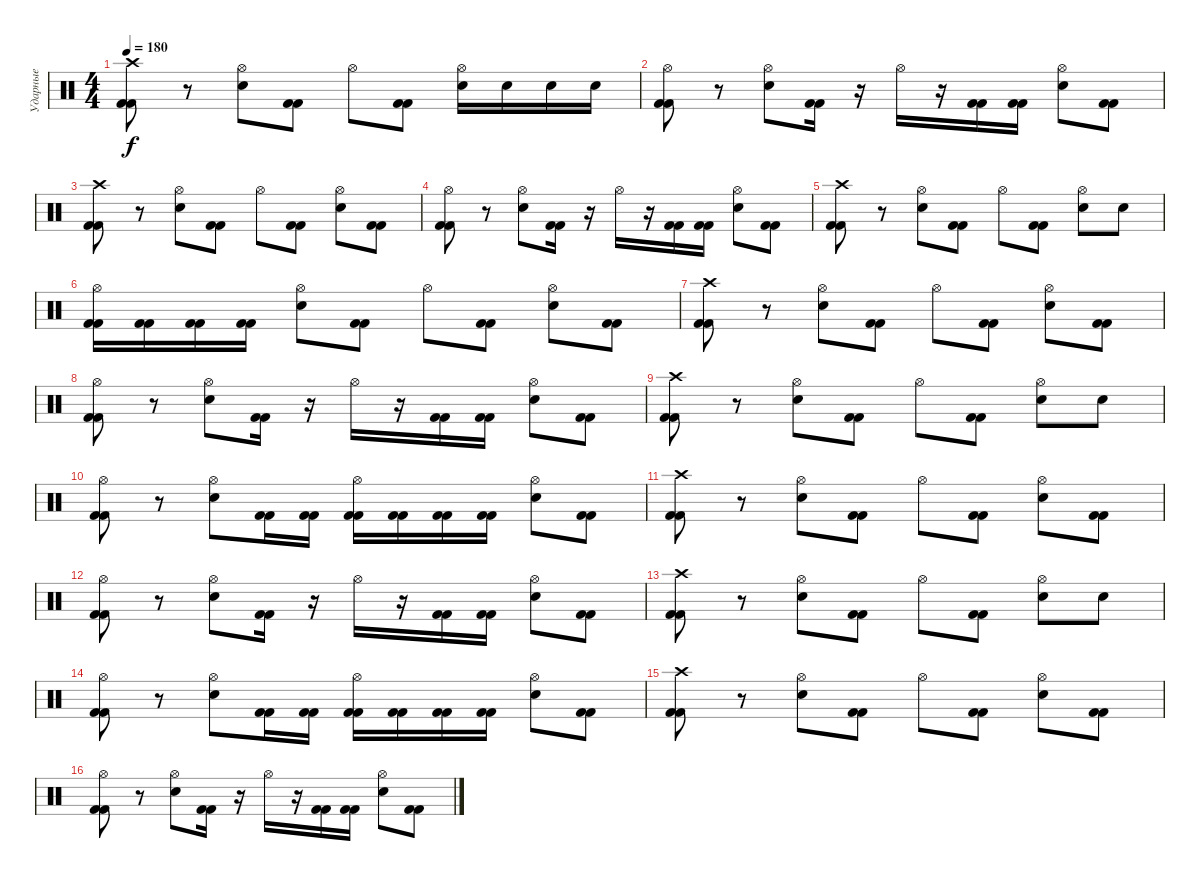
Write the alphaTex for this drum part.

\track ("Ударные" "Ударные") {instrument percussion}
\staff {score}
\articulation defaults
\ts (4 4)
\tempo 180
\clef neutral
\ks c
("Crash high (hit)" "Kick (hit) 2" "Kick (hit) 2").8{dy f} r.8 ("Hi-Hat (open)" "Electric Snare (hit)").8 ("Kick (hit) 2" "Kick (hit) 2").8 "Hi-Hat (open)".8 ("Kick (hit) 2" "Kick (hit) 2").8 ("Hi-Hat (open)" "Electric Snare (hit)").16 "Electric Snare (hit)".16 "Electric Snare (hit)".16 "Electric Snare (hit)".16 |
("Hi-Hat (open)" "Kick (hit) 2" "Kick (hit) 2").8 r.8 ("Hi-Hat (open)" "Electric Snare (hit)").8 ("Kick (hit) 2" "Kick (hit) 2").16 r.16 "Hi-Hat (open)".16 r.16 ("Kick (hit) 2" "Kick (hit) 2").16 ("Kick (hit) 2" "Kick (hit) 2").16 ("Hi-Hat (open)" "Electric Snare (hit)").8 ("Kick (hit) 2" "Kick (hit) 2").8 |
("Crash high (hit)" "Kick (hit) 2" "Kick (hit) 2").8 r.8 ("Hi-Hat (open)" "Electric Snare (hit)").8 ("Kick (hit) 2" "Kick (hit) 2").8 "Hi-Hat (open)".8 ("Kick (hit) 2" "Kick (hit) 2").8 ("Hi-Hat (open)" "Electric Snare (hit)").8 ("Kick (hit) 2" "Kick (hit) 2").8 |
("Hi-Hat (open)" "Kick (hit) 2" "Kick (hit) 2").8 r.8 ("Hi-Hat (open)" "Electric Snare (hit)").8 ("Kick (hit) 2" "Kick (hit) 2").16 r.16 "Hi-Hat (open)".16 r.16 ("Kick (hit) 2" "Kick (hit) 2").16 ("Kick (hit) 2" "Kick (hit) 2").16 ("Hi-Hat (open)" "Electric Snare (hit)").8 ("Kick (hit) 2" "Kick (hit) 2").8 |
("Crash high (hit)" "Kick (hit) 2" "Kick (hit) 2").8 r.8 ("Hi-Hat (open)" "Electric Snare (hit)").8 ("Kick (hit) 2" "Kick (hit) 2").8 "Hi-Hat (open)".8 ("Kick (hit) 2" "Kick (hit) 2").8 ("Hi-Hat (open)" "Electric Snare (hit)").8 "Electric Snare (hit)".8 |
("Hi-Hat (open)" "Kick (hit) 2" "Kick (hit) 2").16 ("Kick (hit) 2" "Kick (hit) 2").16 ("Kick (hit) 2" "Kick (hit) 2").16 ("Kick (hit) 2" "Kick (hit) 2").16 ("Hi-Hat (open)" "Electric Snare (hit)").8 ("Kick (hit) 2" "Kick (hit) 2").8 "Hi-Hat (open)".8 ("Kick (hit) 2" "Kick (hit) 2").8 ("Hi-Hat (open)" "Electric Snare (hit)").8 ("Kick (hit) 2" "Kick (hit) 2").8 |
("Crash high (hit)" "Kick (hit) 2" "Kick (hit) 2").8 r.8 ("Hi-Hat (open)" "Electric Snare (hit)").8 ("Kick (hit) 2" "Kick (hit) 2").8 "Hi-Hat (open)".8 ("Kick (hit) 2" "Kick (hit) 2").8 ("Hi-Hat (open)" "Electric Snare (hit)").8 ("Kick (hit) 2" "Kick (hit) 2").8 |
("Hi-Hat (open)" "Kick (hit) 2" "Kick (hit) 2").8 r.8 ("Hi-Hat (open)" "Electric Snare (hit)").8 ("Kick (hit) 2" "Kick (hit) 2").16 r.16 "Hi-Hat (open)".16 r.16 ("Kick (hit) 2" "Kick (hit) 2").16 ("Kick (hit) 2" "Kick (hit) 2").16 ("Hi-Hat (open)" "Electric Snare (hit)").8 ("Kick (hit) 2" "Kick (hit) 2").8 |
("Crash high (hit)" "Kick (hit) 2" "Kick (hit) 2").8 r.8 ("Hi-Hat (open)" "Electric Snare (hit)").8 ("Kick (hit) 2" "Kick (hit) 2").8 "Hi-Hat (open)".8 ("Kick (hit) 2" "Kick (hit) 2").8 ("Hi-Hat (open)" "Electric Snare (hit)").8 "Electric Snare (hit)".8 |
("Hi-Hat (open)" "Kick (hit) 2" "Kick (hit) 2").8 r.8 ("Hi-Hat (open)" "Electric Snare (hit)").8 ("Kick (hit) 2" "Kick (hit) 2").16 ("Kick (hit) 2" "Kick (hit) 2").16 ("Hi-Hat (open)" "Kick (hit) 2" "Kick (hit) 2").16 ("Kick (hit) 2" "Kick (hit) 2").16 ("Kick (hit) 2" "Kick (hit) 2").16 ("Kick (hit) 2" "Kick (hit) 2").16 ("Hi-Hat (open)" "Electric Snare (hit)").8 ("Kick (hit) 2" "Kick (hit) 2").8 |
("Crash high (hit)" "Kick (hit) 2" "Kick (hit) 2").8 r.8 ("Hi-Hat (open)" "Electric Snare (hit)").8 ("Kick (hit) 2" "Kick (hit) 2").8 "Hi-Hat (open)".8 ("Kick (hit) 2" "Kick (hit) 2").8 ("Hi-Hat (open)" "Electric Snare (hit)").8 ("Kick (hit) 2" "Kick (hit) 2").8 |
("Hi-Hat (open)" "Kick (hit) 2" "Kick (hit) 2").8 r.8 ("Hi-Hat (open)" "Electric Snare (hit)").8 ("Kick (hit) 2" "Kick (hit) 2").16 r.16 "Hi-Hat (open)".16 r.16 ("Kick (hit) 2" "Kick (hit) 2").16 ("Kick (hit) 2" "Kick (hit) 2").16 ("Hi-Hat (open)" "Electric Snare (hit)").8 ("Kick (hit) 2" "Kick (hit) 2").8 |
("Crash high (hit)" "Kick (hit) 2" "Kick (hit) 2").8 r.8 ("Hi-Hat (open)" "Electric Snare (hit)").8 ("Kick (hit) 2" "Kick (hit) 2").8 "Hi-Hat (open)".8 ("Kick (hit) 2" "Kick (hit) 2").8 ("Hi-Hat (open)" "Electric Snare (hit)").8 "Electric Snare (hit)".8 |
("Hi-Hat (open)" "Kick (hit) 2" "Kick (hit) 2").8 r.8 ("Hi-Hat (open)" "Electric Snare (hit)").8 ("Kick (hit) 2" "Kick (hit) 2").16 ("Kick (hit) 2" "Kick (hit) 2").16 ("Hi-Hat (open)" "Kick (hit) 2" "Kick (hit) 2").16 ("Kick (hit) 2" "Kick (hit) 2").16 ("Kick (hit) 2" "Kick (hit) 2").16 ("Kick (hit) 2" "Kick (hit) 2").16 ("Hi-Hat (open)" "Electric Snare (hit)").8 ("Kick (hit) 2" "Kick (hit) 2").8 |
("Crash high (hit)" "Kick (hit) 2" "Kick (hit) 2").8 r.8 ("Hi-Hat (open)" "Electric Snare (hit)").8 ("Kick (hit) 2" "Kick (hit) 2").8 "Hi-Hat (open)".8 ("Kick (hit) 2" "Kick (hit) 2").8 ("Hi-Hat (open)" "Electric Snare (hit)").8 ("Kick (hit) 2" "Kick (hit) 2").8 |
("Hi-Hat (open)" "Kick (hit) 2" "Kick (hit) 2").8 r.8 ("Hi-Hat (open)" "Electric Snare (hit)").8 ("Kick (hit) 2" "Kick (hit) 2").16 r.16 "Hi-Hat (open)".16 r.16 ("Kick (hit) 2" "Kick (hit) 2").16 ("Kick (hit) 2" "Kick (hit) 2").16 ("Hi-Hat (open)" "Electric Snare (hit)").8 ("Kick (hit) 2" "Kick (hit) 2").8
